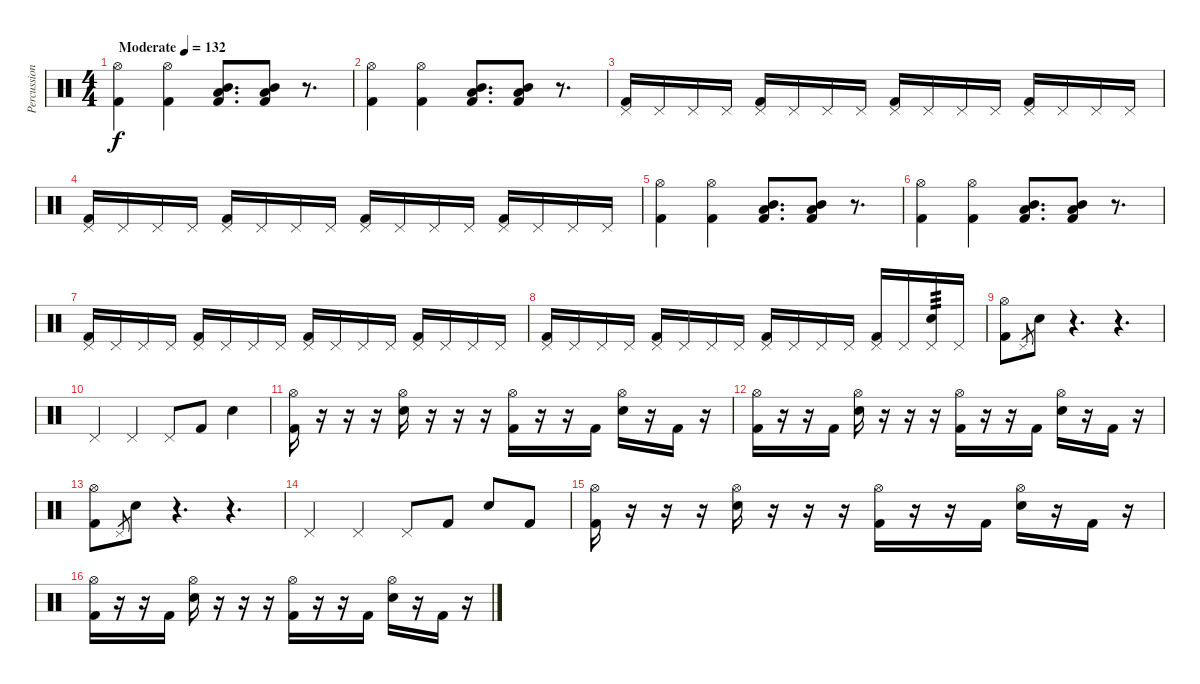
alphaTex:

\track ("Percussion" "Percussion") {instrument percussion}
\staff {score}
\articulation defaults
\ts (4 4)
\tempo (132 "Moderate")
\clef neutral
\ks c
("Hi-Hat (open)" "Kick (hit) 2").4{dy f} ("Hi-Hat (open)" "Kick (hit) 2").4 ("Mid Tom (hit)" "Low Tom (hit)" "Kick (hit) 2").8{d} ("Mid Tom (hit)" "Low Tom (hit)" "Kick (hit) 2").8 r.8{d} |
("Hi-Hat (open)" "Kick (hit) 2").4 ("Hi-Hat (open)" "Kick (hit) 2").4 ("Mid Tom (hit)" "Low Tom (hit)" "Kick (hit) 2").8{d} ("Mid Tom (hit)" "Low Tom (hit)" "Kick (hit) 2").8 r.8{d} |
("Pedal Hi-Hat (hit)" "Kick (hit) 2").16 "Pedal Hi-Hat (hit)".16 "Pedal Hi-Hat (hit)".16 "Pedal Hi-Hat (hit)".16 ("Pedal Hi-Hat (hit)" "Kick (hit) 2").16 "Pedal Hi-Hat (hit)".16 "Pedal Hi-Hat (hit)".16 "Pedal Hi-Hat (hit)".16 ("Pedal Hi-Hat (hit)" "Kick (hit) 2").16 "Pedal Hi-Hat (hit)".16 "Pedal Hi-Hat (hit)".16 "Pedal Hi-Hat (hit)".16 ("Pedal Hi-Hat (hit)" "Kick (hit) 2").16 "Pedal Hi-Hat (hit)".16 "Pedal Hi-Hat (hit)".16 "Pedal Hi-Hat (hit)".16 |
("Pedal Hi-Hat (hit)" "Kick (hit) 2").16 "Pedal Hi-Hat (hit)".16 "Pedal Hi-Hat (hit)".16 "Pedal Hi-Hat (hit)".16 ("Pedal Hi-Hat (hit)" "Kick (hit) 2").16 "Pedal Hi-Hat (hit)".16 "Pedal Hi-Hat (hit)".16 "Pedal Hi-Hat (hit)".16 ("Pedal Hi-Hat (hit)" "Kick (hit) 2").16 "Pedal Hi-Hat (hit)".16 "Pedal Hi-Hat (hit)".16 "Pedal Hi-Hat (hit)".16 ("Pedal Hi-Hat (hit)" "Kick (hit) 2").16 "Pedal Hi-Hat (hit)".16 "Pedal Hi-Hat (hit)".16 "Pedal Hi-Hat (hit)".16 |
("Hi-Hat (open)" "Kick (hit) 2").4 ("Hi-Hat (open)" "Kick (hit) 2").4 ("Mid Tom (hit)" "Low Tom (hit)" "Kick (hit) 2").8{d} ("Mid Tom (hit)" "Low Tom (hit)" "Kick (hit) 2").8 r.8{d} |
("Hi-Hat (open)" "Kick (hit) 2").4 ("Hi-Hat (open)" "Kick (hit) 2").4 ("Mid Tom (hit)" "Low Tom (hit)" "Kick (hit) 2").8{d} ("Mid Tom (hit)" "Low Tom (hit)" "Kick (hit) 2").8 r.8{d} |
("Pedal Hi-Hat (hit)" "Kick (hit) 2").16 "Pedal Hi-Hat (hit)".16 "Pedal Hi-Hat (hit)".16 "Pedal Hi-Hat (hit)".16 ("Pedal Hi-Hat (hit)" "Kick (hit) 2").16 "Pedal Hi-Hat (hit)".16 "Pedal Hi-Hat (hit)".16 "Pedal Hi-Hat (hit)".16 ("Pedal Hi-Hat (hit)" "Kick (hit) 2").16 "Pedal Hi-Hat (hit)".16 "Pedal Hi-Hat (hit)".16 "Pedal Hi-Hat (hit)".16 ("Pedal Hi-Hat (hit)" "Kick (hit) 2").16 "Pedal Hi-Hat (hit)".16 "Pedal Hi-Hat (hit)".16 "Pedal Hi-Hat (hit)".16 |
("Pedal Hi-Hat (hit)" "Kick (hit) 2").16 "Pedal Hi-Hat (hit)".16 "Pedal Hi-Hat (hit)".16 "Pedal Hi-Hat (hit)".16 ("Pedal Hi-Hat (hit)" "Kick (hit) 2").16 "Pedal Hi-Hat (hit)".16 "Pedal Hi-Hat (hit)".16 "Pedal Hi-Hat (hit)".16 ("Pedal Hi-Hat (hit)" "Kick (hit) 2").16 "Pedal Hi-Hat (hit)".16 "Pedal Hi-Hat (hit)".16 "Pedal Hi-Hat (hit)".16 ("Pedal Hi-Hat (hit)" "Kick (hit) 2").16 "Pedal Hi-Hat (hit)".16 ("Pedal Hi-Hat (hit)" "Snare (hit) 2").16{tp 3} "Pedal Hi-Hat (hit)".16 |
("Hi-Hat (open)" "Kick (hit) 2").8 "Pedal Hi-Hat (hit)".8{gr} "Snare (hit)".8 r.4{d} r.4{d} |
"Pedal Hi-Hat (hit)".4 "Pedal Hi-Hat (hit)".4 "Pedal Hi-Hat (hit)".8 "Kick (hit) 2".8 "Snare (hit) 2".4 |
("Hi-Hat (open)" "Kick (hit) 2").16 r.16 r.16 r.16 ("Hi-Hat (open)" "Snare (hit) 2").16 r.16 r.16 r.16 ("Hi-Hat (open)" "Kick (hit) 2").16 r.16 r.16 "Kick (hit) 2".16 ("Hi-Hat (open)" "Snare (hit) 2").16 r.16 "Kick (hit) 2".16 r.16 |
("Hi-Hat (open)" "Kick (hit) 2").16 r.16 r.16 "Kick (hit) 2".16 ("Hi-Hat (open)" "Snare (hit) 2").16 r.16 r.16 r.16 ("Hi-Hat (open)" "Kick (hit) 2").16 r.16 r.16 "Kick (hit) 2".16 ("Hi-Hat (open)" "Snare (hit) 2").16 r.16 "Kick (hit) 2".16 r.16 |
("Hi-Hat (open)" "Kick (hit) 2").8 "Pedal Hi-Hat (hit)".8{gr} "Snare (hit)".8 r.4{d} r.4{d} |
"Pedal Hi-Hat (hit)".4 "Pedal Hi-Hat (hit)".4 "Pedal Hi-Hat (hit)".8 "Kick (hit) 2".8 "Snare (hit) 2".8 "Kick (hit) 2".8 |
("Hi-Hat (open)" "Kick (hit) 2").16 r.16 r.16 r.16 ("Hi-Hat (open)" "Snare (hit) 2").16 r.16 r.16 r.16 ("Hi-Hat (open)" "Kick (hit) 2").16 r.16 r.16 "Kick (hit) 2".16 ("Hi-Hat (open)" "Snare (hit) 2").16 r.16 "Kick (hit) 2".16 r.16 |
("Hi-Hat (open)" "Kick (hit) 2").16 r.16 r.16 "Kick (hit) 2".16 ("Hi-Hat (open)" "Snare (hit) 2").16 r.16 r.16 r.16 ("Hi-Hat (open)" "Kick (hit) 2").16 r.16 r.16 "Kick (hit) 2".16 ("Hi-Hat (open)" "Snare (hit) 2").16 r.16 "Kick (hit) 2".16 r.16
